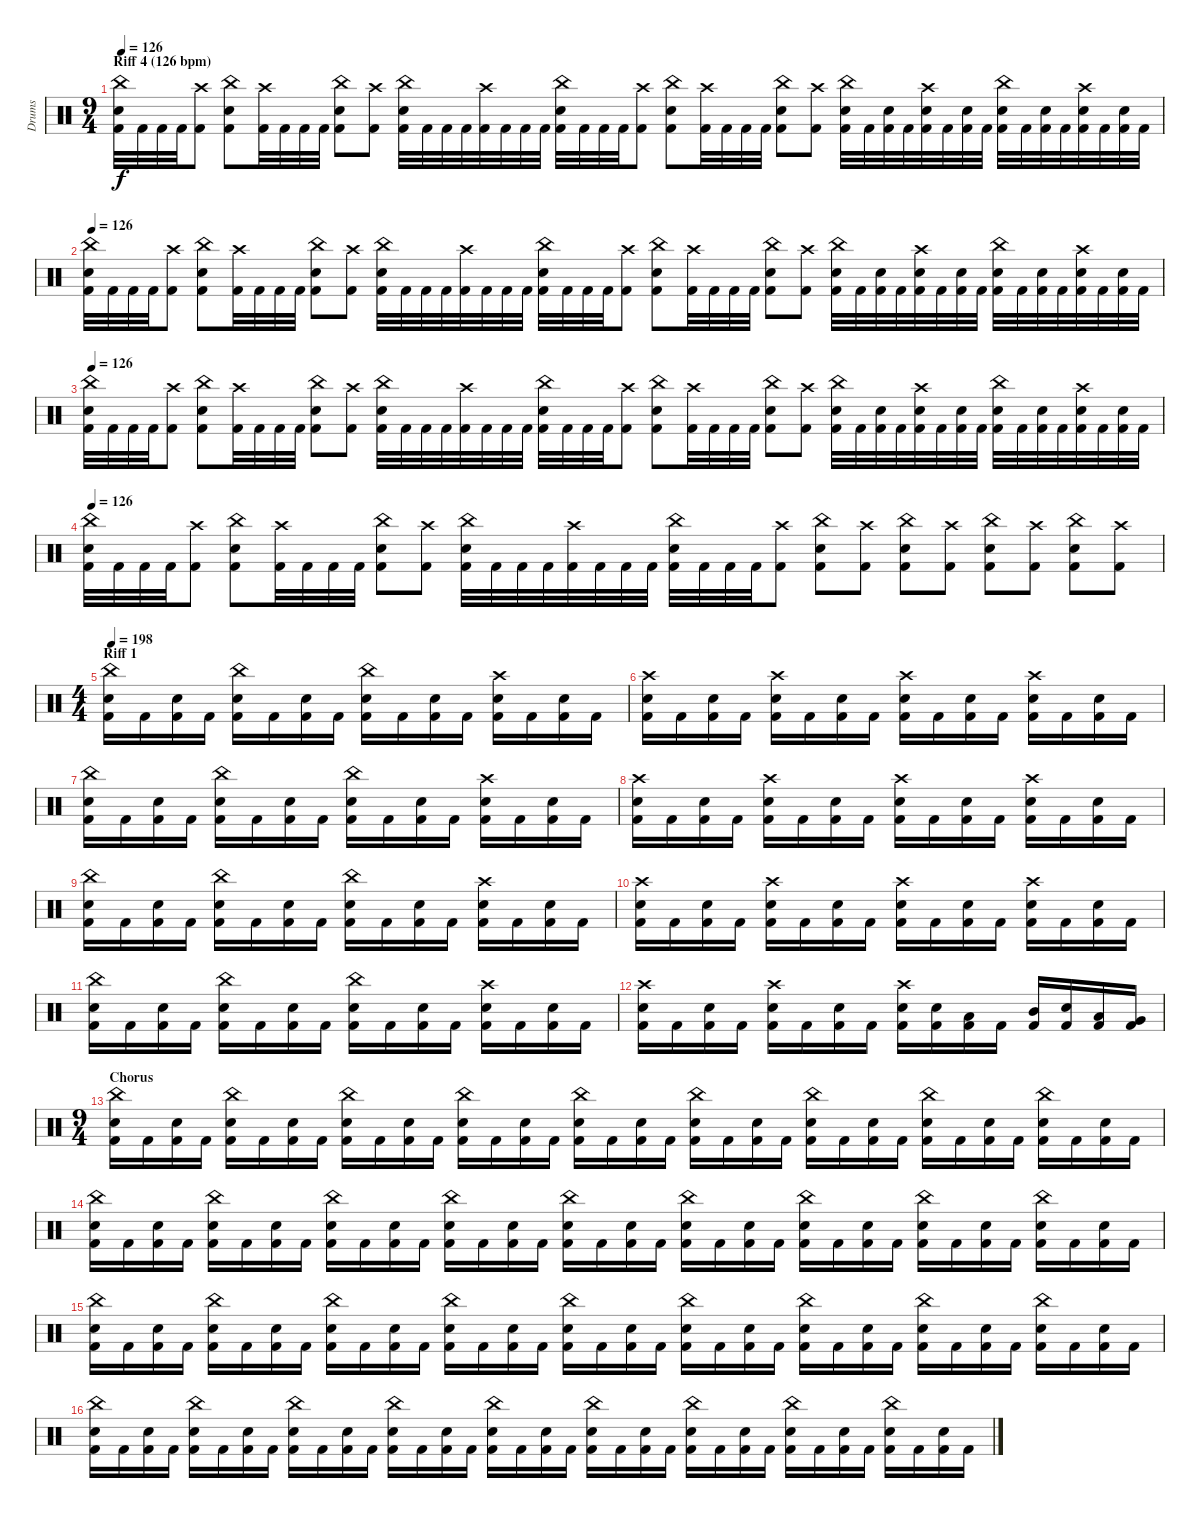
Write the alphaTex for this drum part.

\track ("Drums" "Drums") {instrument percussion}
\staff {score}
\articulation defaults
\ts (9 4)
\section ("" "Riff 4 (126 bpm)")
\tempo 126
\clef neutral
\ks c
("Kick (hit) 2" "Snare (hit) 2" "China (hit)").32{dy f} "Kick (hit) 2".32 "Kick (hit) 2".32 "Kick (hit) 2".32 ("Kick (hit) 2" "Crash high (hit)").8 ("Kick (hit) 2" "Snare (hit) 2" "China (hit)").8 ("Kick (hit) 2" "Crash high (hit)").32 "Kick (hit) 2".32 "Kick (hit) 2".32 "Kick (hit) 2".32 ("Kick (hit) 2" "Snare (hit) 2" "China (hit)").8 ("Kick (hit) 2" "Crash high (hit)").8 ("Kick (hit) 2" "Snare (hit) 2" "China (hit)").32 "Kick (hit) 2".32 "Kick (hit) 2".32 "Kick (hit) 2".32 ("Kick (hit) 2" "Crash high (hit)").32 "Kick (hit) 2".32 "Kick (hit) 2".32 "Kick (hit) 2".32 ("Kick (hit) 2" "Snare (hit) 2" "China (hit)").32 "Kick (hit) 2".32 "Kick (hit) 2".32 "Kick (hit) 2".32 ("Kick (hit) 2" "Crash high (hit)").8 ("Kick (hit) 2" "Snare (hit) 2" "China (hit)").8 ("Kick (hit) 2" "Crash high (hit)").32 "Kick (hit) 2".32 "Kick (hit) 2".32 "Kick (hit) 2".32 ("Kick (hit) 2" "Snare (hit) 2" "China (hit)").8 ("Kick (hit) 2" "Crash high (hit)").8 ("Kick (hit) 2" "Snare (hit) 2" "China (hit)").32 "Kick (hit) 2".32 ("Kick (hit) 2" "Snare (hit) 2").32 "Kick (hit) 2".32 ("Kick (hit) 2" "Snare (hit) 2" "Crash high (hit)").32 "Kick (hit) 2".32 ("Kick (hit) 2" "Snare (hit) 2").32 "Kick (hit) 2".32 ("Kick (hit) 2" "Snare (hit) 2" "China (hit)").32 "Kick (hit) 2".32 ("Kick (hit) 2" "Snare (hit) 2").32 "Kick (hit) 2".32 ("Kick (hit) 2" "Snare (hit) 2" "Crash high (hit)").32 "Kick (hit) 2".32 ("Kick (hit) 2" "Snare (hit) 2").32 "Kick (hit) 2".32 |
\tempo 126
("Kick (hit) 2" "Snare (hit) 2" "China (hit)").32 "Kick (hit) 2".32 "Kick (hit) 2".32 "Kick (hit) 2".32 ("Kick (hit) 2" "Crash high (hit)").8 ("Kick (hit) 2" "Snare (hit) 2" "China (hit)").8 ("Kick (hit) 2" "Crash high (hit)").32 "Kick (hit) 2".32 "Kick (hit) 2".32 "Kick (hit) 2".32 ("Kick (hit) 2" "Snare (hit) 2" "China (hit)").8 ("Kick (hit) 2" "Crash high (hit)").8 ("Kick (hit) 2" "Snare (hit) 2" "China (hit)").32 "Kick (hit) 2".32 "Kick (hit) 2".32 "Kick (hit) 2".32 ("Kick (hit) 2" "Crash high (hit)").32 "Kick (hit) 2".32 "Kick (hit) 2".32 "Kick (hit) 2".32 ("Kick (hit) 2" "Snare (hit) 2" "China (hit)").32 "Kick (hit) 2".32 "Kick (hit) 2".32 "Kick (hit) 2".32 ("Kick (hit) 2" "Crash high (hit)").8 ("Kick (hit) 2" "Snare (hit) 2" "China (hit)").8 ("Kick (hit) 2" "Crash high (hit)").32 "Kick (hit) 2".32 "Kick (hit) 2".32 "Kick (hit) 2".32 ("Kick (hit) 2" "Snare (hit) 2" "China (hit)").8 ("Kick (hit) 2" "Crash high (hit)").8 ("Kick (hit) 2" "Snare (hit) 2" "China (hit)").32 "Kick (hit) 2".32 ("Kick (hit) 2" "Snare (hit) 2").32 "Kick (hit) 2".32 ("Kick (hit) 2" "Snare (hit) 2" "Crash high (hit)").32 "Kick (hit) 2".32 ("Kick (hit) 2" "Snare (hit) 2").32 "Kick (hit) 2".32 ("Kick (hit) 2" "Snare (hit) 2" "China (hit)").32 "Kick (hit) 2".32 ("Kick (hit) 2" "Snare (hit) 2").32 "Kick (hit) 2".32 ("Kick (hit) 2" "Snare (hit) 2" "Crash high (hit)").32 "Kick (hit) 2".32 ("Kick (hit) 2" "Snare (hit) 2").32 "Kick (hit) 2".32 |
\tempo 126
("Kick (hit) 2" "Snare (hit) 2" "China (hit)").32 "Kick (hit) 2".32 "Kick (hit) 2".32 "Kick (hit) 2".32 ("Kick (hit) 2" "Crash high (hit)").8 ("Kick (hit) 2" "Snare (hit) 2" "China (hit)").8 ("Kick (hit) 2" "Crash high (hit)").32 "Kick (hit) 2".32 "Kick (hit) 2".32 "Kick (hit) 2".32 ("Kick (hit) 2" "Snare (hit) 2" "China (hit)").8 ("Kick (hit) 2" "Crash high (hit)").8 ("Kick (hit) 2" "Snare (hit) 2" "China (hit)").32 "Kick (hit) 2".32 "Kick (hit) 2".32 "Kick (hit) 2".32 ("Kick (hit) 2" "Crash high (hit)").32 "Kick (hit) 2".32 "Kick (hit) 2".32 "Kick (hit) 2".32 ("Kick (hit) 2" "Snare (hit) 2" "China (hit)").32 "Kick (hit) 2".32 "Kick (hit) 2".32 "Kick (hit) 2".32 ("Kick (hit) 2" "Crash high (hit)").8 ("Kick (hit) 2" "Snare (hit) 2" "China (hit)").8 ("Kick (hit) 2" "Crash high (hit)").32 "Kick (hit) 2".32 "Kick (hit) 2".32 "Kick (hit) 2".32 ("Kick (hit) 2" "Snare (hit) 2" "China (hit)").8 ("Kick (hit) 2" "Crash high (hit)").8 ("Kick (hit) 2" "Snare (hit) 2" "China (hit)").32 "Kick (hit) 2".32 ("Kick (hit) 2" "Snare (hit) 2").32 "Kick (hit) 2".32 ("Kick (hit) 2" "Snare (hit) 2" "Crash high (hit)").32 "Kick (hit) 2".32 ("Kick (hit) 2" "Snare (hit) 2").32 "Kick (hit) 2".32 ("Kick (hit) 2" "Snare (hit) 2" "China (hit)").32 "Kick (hit) 2".32 ("Kick (hit) 2" "Snare (hit) 2").32 "Kick (hit) 2".32 ("Kick (hit) 2" "Snare (hit) 2" "Crash high (hit)").32 "Kick (hit) 2".32 ("Kick (hit) 2" "Snare (hit) 2").32 "Kick (hit) 2".32 |
\tempo 126
("Kick (hit) 2" "Snare (hit) 2" "China (hit)").32 "Kick (hit) 2".32 "Kick (hit) 2".32 "Kick (hit) 2".32 ("Kick (hit) 2" "Crash high (hit)").8 ("Kick (hit) 2" "Snare (hit) 2" "China (hit)").8 ("Kick (hit) 2" "Crash high (hit)").32 "Kick (hit) 2".32 "Kick (hit) 2".32 "Kick (hit) 2".32 ("Kick (hit) 2" "Snare (hit) 2" "China (hit)").8 ("Kick (hit) 2" "Crash high (hit)").8 ("Kick (hit) 2" "Snare (hit) 2" "China (hit)").32 "Kick (hit) 2".32 "Kick (hit) 2".32 "Kick (hit) 2".32 ("Kick (hit) 2" "Crash high (hit)").32 "Kick (hit) 2".32 "Kick (hit) 2".32 "Kick (hit) 2".32 ("Kick (hit) 2" "Snare (hit) 2" "China (hit)").32 "Kick (hit) 2".32 "Kick (hit) 2".32 "Kick (hit) 2".32 ("Kick (hit) 2" "Crash high (hit)").8 ("Kick (hit) 2" "Snare (hit) 2" "China (hit)").8 ("Kick (hit) 2" "Crash high (hit)").8 ("Kick (hit) 2" "Snare (hit) 2" "China (hit)").8 ("Kick (hit) 2" "Crash high (hit)").8 ("Kick (hit) 2" "Snare (hit) 2" "China (hit)").8 ("Kick (hit) 2" "Crash high (hit)").8 ("Kick (hit) 2" "Snare (hit) 2" "China (hit)").8 ("Kick (hit) 2" "Crash high (hit)").8 |
\ts (4 4)
\section ("" "Riff 1")
\tempo 198
("Kick (hit) 2" "Snare (hit) 2" "China (hit)").16 "Kick (hit) 2".16 ("Kick (hit) 2" "Snare (hit) 2").16 "Kick (hit) 2".16 ("Kick (hit) 2" "Snare (hit) 2" "China (hit)").16 "Kick (hit) 2".16 ("Kick (hit) 2" "Snare (hit) 2").16 "Kick (hit) 2".16 ("Kick (hit) 2" "Snare (hit) 2" "China (hit)").16 "Kick (hit) 2".16 ("Kick (hit) 2" "Snare (hit) 2").16 "Kick (hit) 2".16 ("Kick (hit) 2" "Snare (hit) 2" "Crash high (hit)").16 "Kick (hit) 2".16 ("Kick (hit) 2" "Snare (hit) 2").16 "Kick (hit) 2".16 |
("Kick (hit) 2" "Snare (hit) 2" "Crash high (hit)").16 "Kick (hit) 2".16 ("Kick (hit) 2" "Snare (hit) 2").16 "Kick (hit) 2".16 ("Kick (hit) 2" "Snare (hit) 2" "Crash high (hit)").16 "Kick (hit) 2".16 ("Kick (hit) 2" "Snare (hit) 2").16 "Kick (hit) 2".16 ("Kick (hit) 2" "Snare (hit) 2" "Crash high (hit)").16 "Kick (hit) 2".16 ("Kick (hit) 2" "Snare (hit) 2").16 "Kick (hit) 2".16 ("Kick (hit) 2" "Snare (hit) 2" "Crash high (hit)").16 "Kick (hit) 2".16 ("Kick (hit) 2" "Snare (hit) 2").16 "Kick (hit) 2".16 |
("Kick (hit) 2" "Snare (hit) 2" "China (hit)").16 "Kick (hit) 2".16 ("Kick (hit) 2" "Snare (hit) 2").16 "Kick (hit) 2".16 ("Kick (hit) 2" "Snare (hit) 2" "China (hit)").16 "Kick (hit) 2".16 ("Kick (hit) 2" "Snare (hit) 2").16 "Kick (hit) 2".16 ("Kick (hit) 2" "Snare (hit) 2" "China (hit)").16 "Kick (hit) 2".16 ("Kick (hit) 2" "Snare (hit) 2").16 "Kick (hit) 2".16 ("Kick (hit) 2" "Snare (hit) 2" "Crash high (hit)").16 "Kick (hit) 2".16 ("Kick (hit) 2" "Snare (hit) 2").16 "Kick (hit) 2".16 |
("Kick (hit) 2" "Snare (hit) 2" "Crash high (hit)").16 "Kick (hit) 2".16 ("Kick (hit) 2" "Snare (hit) 2").16 "Kick (hit) 2".16 ("Kick (hit) 2" "Snare (hit) 2" "Crash high (hit)").16 "Kick (hit) 2".16 ("Kick (hit) 2" "Snare (hit) 2").16 "Kick (hit) 2".16 ("Kick (hit) 2" "Snare (hit) 2" "Crash high (hit)").16 "Kick (hit) 2".16 ("Kick (hit) 2" "Snare (hit) 2").16 "Kick (hit) 2".16 ("Kick (hit) 2" "Snare (hit) 2" "Crash high (hit)").16 "Kick (hit) 2".16 ("Kick (hit) 2" "Snare (hit) 2").16 "Kick (hit) 2".16 |
("Kick (hit) 2" "Snare (hit) 2" "China (hit)").16 "Kick (hit) 2".16 ("Kick (hit) 2" "Snare (hit) 2").16 "Kick (hit) 2".16 ("Kick (hit) 2" "Snare (hit) 2" "China (hit)").16 "Kick (hit) 2".16 ("Kick (hit) 2" "Snare (hit) 2").16 "Kick (hit) 2".16 ("Kick (hit) 2" "Snare (hit) 2" "China (hit)").16 "Kick (hit) 2".16 ("Kick (hit) 2" "Snare (hit) 2").16 "Kick (hit) 2".16 ("Kick (hit) 2" "Snare (hit) 2" "Crash high (hit)").16 "Kick (hit) 2".16 ("Kick (hit) 2" "Snare (hit) 2").16 "Kick (hit) 2".16 |
("Kick (hit) 2" "Snare (hit) 2" "Crash high (hit)").16 "Kick (hit) 2".16 ("Kick (hit) 2" "Snare (hit) 2").16 "Kick (hit) 2".16 ("Kick (hit) 2" "Snare (hit) 2" "Crash high (hit)").16 "Kick (hit) 2".16 ("Kick (hit) 2" "Snare (hit) 2").16 "Kick (hit) 2".16 ("Kick (hit) 2" "Snare (hit) 2" "Crash high (hit)").16 "Kick (hit) 2".16 ("Kick (hit) 2" "Snare (hit) 2").16 "Kick (hit) 2".16 ("Kick (hit) 2" "Snare (hit) 2" "Crash high (hit)").16 "Kick (hit) 2".16 ("Kick (hit) 2" "Snare (hit) 2").16 "Kick (hit) 2".16 |
("Kick (hit) 2" "Snare (hit) 2" "China (hit)").16 "Kick (hit) 2".16 ("Kick (hit) 2" "Snare (hit) 2").16 "Kick (hit) 2".16 ("Kick (hit) 2" "Snare (hit) 2" "China (hit)").16 "Kick (hit) 2".16 ("Kick (hit) 2" "Snare (hit) 2").16 "Kick (hit) 2".16 ("Kick (hit) 2" "Snare (hit) 2" "China (hit)").16 "Kick (hit) 2".16 ("Kick (hit) 2" "Snare (hit) 2").16 "Kick (hit) 2".16 ("Kick (hit) 2" "Snare (hit) 2" "Crash high (hit)").16 "Kick (hit) 2".16 ("Kick (hit) 2" "Snare (hit) 2").16 "Kick (hit) 2".16 |
("Kick (hit) 2" "Snare (hit) 2" "Crash high (hit)").16 "Kick (hit) 2".16 ("Kick (hit) 2" "Snare (hit) 2").16 "Kick (hit) 2".16 ("Kick (hit) 2" "Snare (hit) 2" "Crash high (hit)").16 "Kick (hit) 2".16 ("Kick (hit) 2" "Snare (hit) 2").16 "Kick (hit) 2".16 ("Kick (hit) 2" "Snare (hit) 2" "Crash high (hit)").16 ("Kick (hit) 2" "Snare (hit) 2").16 ("Kick (hit) 2" "Low Tom (hit)").16 "Kick (hit) 2".16 ("Kick (hit) 2" "Mid Tom (hit)").16 ("Kick (hit) 2" "Snare (hit) 2").16 ("Kick (hit) 2" "Low Tom (hit)").16 ("Kick (hit) 2" "Very Low Tom (hit)").16 |
\ts (9 4)
\section ("" "Chorus")
("Kick (hit) 2" "Snare (hit) 2" "China (hit)").16 "Kick (hit) 2".16 ("Kick (hit) 2" "Snare (hit) 2").16 "Kick (hit) 2".16 ("Kick (hit) 2" "Snare (hit) 2" "China (hit)").16 "Kick (hit) 2".16 ("Kick (hit) 2" "Snare (hit) 2").16 "Kick (hit) 2".16 ("Kick (hit) 2" "Snare (hit) 2" "China (hit)").16 "Kick (hit) 2".16 ("Kick (hit) 2" "Snare (hit) 2").16 "Kick (hit) 2".16 ("Kick (hit) 2" "Snare (hit) 2" "China (hit)").16 "Kick (hit) 2".16 ("Kick (hit) 2" "Snare (hit) 2").16 "Kick (hit) 2".16 ("Kick (hit) 2" "Snare (hit) 2" "China (hit)").16 "Kick (hit) 2".16 ("Kick (hit) 2" "Snare (hit) 2").16 "Kick (hit) 2".16 ("Kick (hit) 2" "Snare (hit) 2" "China (hit)").16 "Kick (hit) 2".16 ("Kick (hit) 2" "Snare (hit) 2").16 "Kick (hit) 2".16 ("Kick (hit) 2" "Snare (hit) 2" "China (hit)").16 "Kick (hit) 2".16 ("Kick (hit) 2" "Snare (hit) 2").16 "Kick (hit) 2".16 ("Kick (hit) 2" "Snare (hit) 2" "China (hit)").16 "Kick (hit) 2".16 ("Kick (hit) 2" "Snare (hit) 2").16 "Kick (hit) 2".16 ("Kick (hit) 2" "Snare (hit) 2" "China (hit)").16 "Kick (hit) 2".16 ("Kick (hit) 2" "Snare (hit) 2").16 "Kick (hit) 2".16 |
("Kick (hit) 2" "Snare (hit) 2" "China (hit)").16 "Kick (hit) 2".16 ("Kick (hit) 2" "Snare (hit) 2").16 "Kick (hit) 2".16 ("Kick (hit) 2" "Snare (hit) 2" "China (hit)").16 "Kick (hit) 2".16 ("Kick (hit) 2" "Snare (hit) 2").16 "Kick (hit) 2".16 ("Kick (hit) 2" "Snare (hit) 2" "China (hit)").16 "Kick (hit) 2".16 ("Kick (hit) 2" "Snare (hit) 2").16 "Kick (hit) 2".16 ("Kick (hit) 2" "Snare (hit) 2" "China (hit)").16 "Kick (hit) 2".16 ("Kick (hit) 2" "Snare (hit) 2").16 "Kick (hit) 2".16 ("Kick (hit) 2" "Snare (hit) 2" "China (hit)").16 "Kick (hit) 2".16 ("Kick (hit) 2" "Snare (hit) 2").16 "Kick (hit) 2".16 ("Kick (hit) 2" "Snare (hit) 2" "China (hit)").16 "Kick (hit) 2".16 ("Kick (hit) 2" "Snare (hit) 2").16 "Kick (hit) 2".16 ("Kick (hit) 2" "Snare (hit) 2" "China (hit)").16 "Kick (hit) 2".16 ("Kick (hit) 2" "Snare (hit) 2").16 "Kick (hit) 2".16 ("Kick (hit) 2" "Snare (hit) 2" "China (hit)").16 "Kick (hit) 2".16 ("Kick (hit) 2" "Snare (hit) 2").16 "Kick (hit) 2".16 ("Kick (hit) 2" "Snare (hit) 2" "China (hit)").16 "Kick (hit) 2".16 ("Kick (hit) 2" "Snare (hit) 2").16 "Kick (hit) 2".16 |
("Kick (hit) 2" "Snare (hit) 2" "China (hit)").16 "Kick (hit) 2".16 ("Kick (hit) 2" "Snare (hit) 2").16 "Kick (hit) 2".16 ("Kick (hit) 2" "Snare (hit) 2" "China (hit)").16 "Kick (hit) 2".16 ("Kick (hit) 2" "Snare (hit) 2").16 "Kick (hit) 2".16 ("Kick (hit) 2" "Snare (hit) 2" "China (hit)").16 "Kick (hit) 2".16 ("Kick (hit) 2" "Snare (hit) 2").16 "Kick (hit) 2".16 ("Kick (hit) 2" "Snare (hit) 2" "China (hit)").16 "Kick (hit) 2".16 ("Kick (hit) 2" "Snare (hit) 2").16 "Kick (hit) 2".16 ("Kick (hit) 2" "Snare (hit) 2" "China (hit)").16 "Kick (hit) 2".16 ("Kick (hit) 2" "Snare (hit) 2").16 "Kick (hit) 2".16 ("Kick (hit) 2" "Snare (hit) 2" "China (hit)").16 "Kick (hit) 2".16 ("Kick (hit) 2" "Snare (hit) 2").16 "Kick (hit) 2".16 ("Kick (hit) 2" "Snare (hit) 2" "China (hit)").16 "Kick (hit) 2".16 ("Kick (hit) 2" "Snare (hit) 2").16 "Kick (hit) 2".16 ("Kick (hit) 2" "Snare (hit) 2" "China (hit)").16 "Kick (hit) 2".16 ("Kick (hit) 2" "Snare (hit) 2").16 "Kick (hit) 2".16 ("Kick (hit) 2" "Snare (hit) 2" "China (hit)").16 "Kick (hit) 2".16 ("Kick (hit) 2" "Snare (hit) 2").16 "Kick (hit) 2".16 |
("Kick (hit) 2" "Snare (hit) 2" "China (hit)").16 "Kick (hit) 2".16 ("Kick (hit) 2" "Snare (hit) 2").16 "Kick (hit) 2".16 ("Kick (hit) 2" "Snare (hit) 2" "China (hit)").16 "Kick (hit) 2".16 ("Kick (hit) 2" "Snare (hit) 2").16 "Kick (hit) 2".16 ("Kick (hit) 2" "Snare (hit) 2" "China (hit)").16 "Kick (hit) 2".16 ("Kick (hit) 2" "Snare (hit) 2").16 "Kick (hit) 2".16 ("Kick (hit) 2" "Snare (hit) 2" "China (hit)").16 "Kick (hit) 2".16 ("Kick (hit) 2" "Snare (hit) 2").16 "Kick (hit) 2".16 ("Kick (hit) 2" "Snare (hit) 2" "China (hit)").16 "Kick (hit) 2".16 ("Kick (hit) 2" "Snare (hit) 2").16 "Kick (hit) 2".16 ("Kick (hit) 2" "Snare (hit) 2" "China (hit)").16 "Kick (hit) 2".16 ("Kick (hit) 2" "Snare (hit) 2").16 "Kick (hit) 2".16 ("Kick (hit) 2" "Snare (hit) 2" "China (hit)").16 "Kick (hit) 2".16 ("Kick (hit) 2" "Snare (hit) 2").16 "Kick (hit) 2".16 ("Kick (hit) 2" "Snare (hit) 2" "China (hit)").16 "Kick (hit) 2".16 ("Kick (hit) 2" "Snare (hit) 2").16 "Kick (hit) 2".16 ("Kick (hit) 2" "Snare (hit) 2" "China (hit)").16 "Kick (hit) 2".16 ("Kick (hit) 2" "Snare (hit) 2").16 "Kick (hit) 2".16
